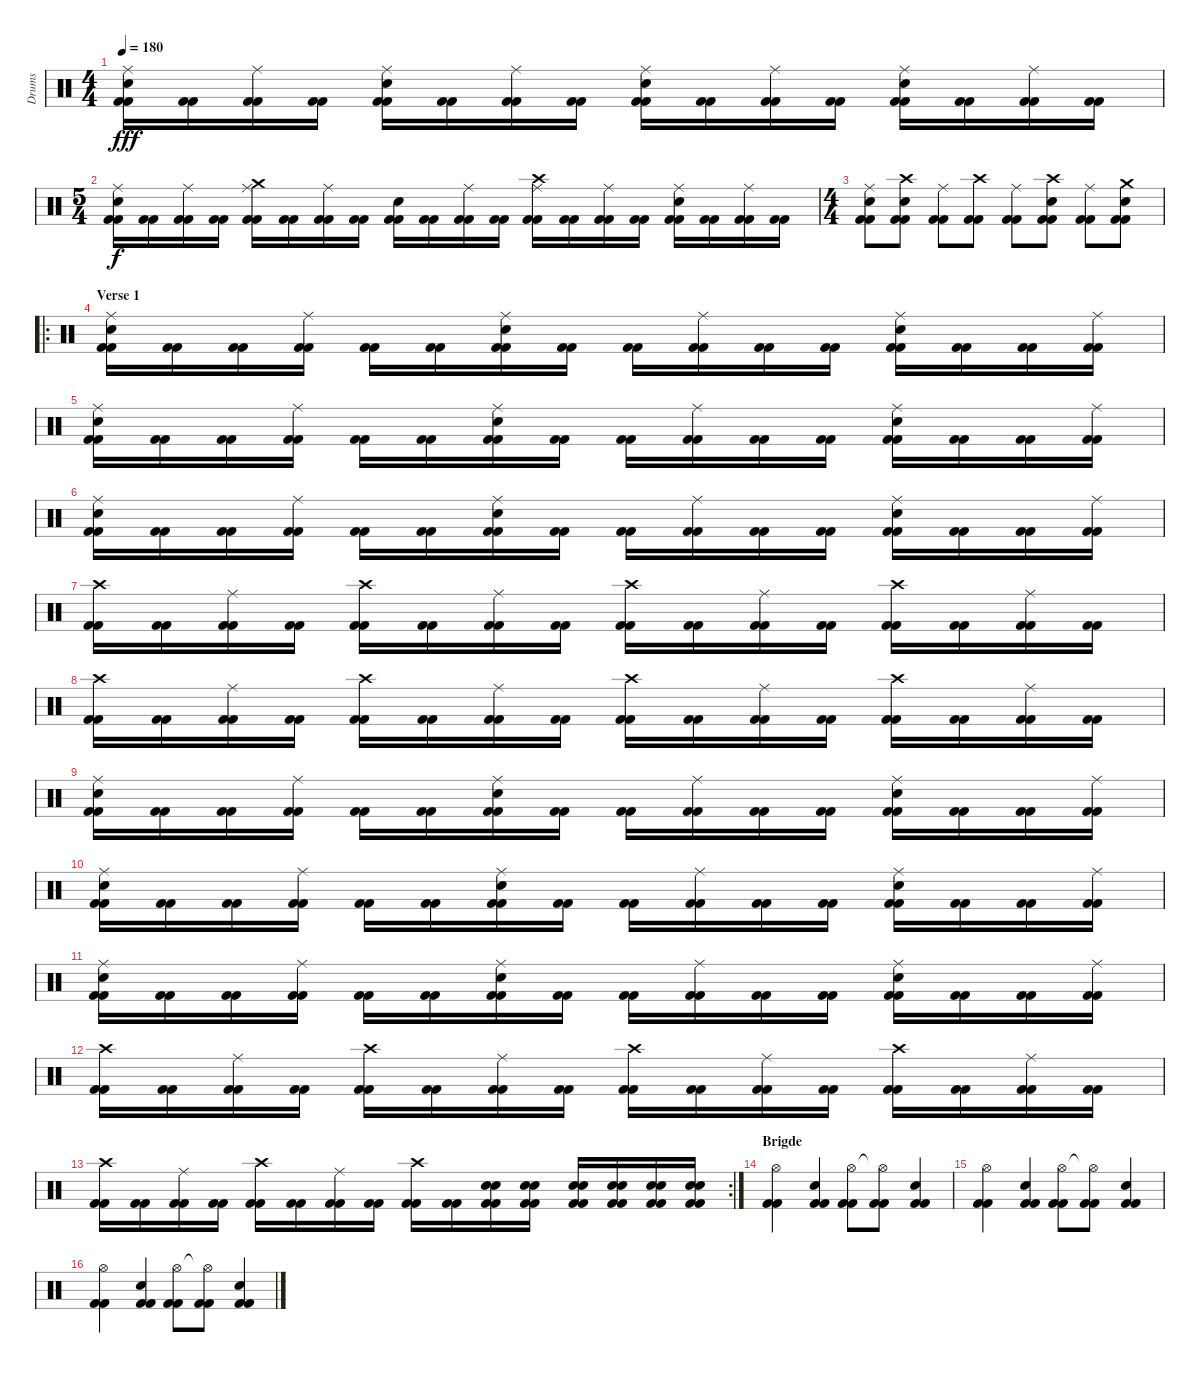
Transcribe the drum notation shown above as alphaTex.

\track ("Drums" "Drums") {instrument percussion}
\staff {score}
\articulation defaults
\ts (4 4)
\tempo 180
\clef neutral
\ks c
("Kick (hit) 2" "Kick (hit) 2" "Electric Snare (hit)" "Ride (middle)").16{dy fff} ("Kick (hit) 2" "Kick (hit) 2").16 ("Kick (hit) 2" "Kick (hit) 2" "Ride (middle)").16 ("Kick (hit) 2" "Kick (hit) 2").16 ("Kick (hit) 2" "Kick (hit) 2" "Electric Snare (hit)" "Ride (middle)").16 ("Kick (hit) 2" "Kick (hit) 2").16 ("Kick (hit) 2" "Kick (hit) 2" "Ride (middle)").16 ("Kick (hit) 2" "Kick (hit) 2").16 ("Kick (hit) 2" "Kick (hit) 2" "Electric Snare (hit)" "Ride (middle)").16 ("Kick (hit) 2" "Kick (hit) 2").16 ("Kick (hit) 2" "Kick (hit) 2" "Ride (middle)").16 ("Kick (hit) 2" "Kick (hit) 2").16 ("Kick (hit) 2" "Kick (hit) 2" "Electric Snare (hit)" "Ride (middle)").16 ("Kick (hit) 2" "Kick (hit) 2").16 ("Kick (hit) 2" "Kick (hit) 2" "Ride (middle)").16 ("Kick (hit) 2" "Kick (hit) 2").16 |
\ts (5 4)
("Kick (hit) 2" "Kick (hit) 2" "Electric Snare (hit)" "Ride (middle)").16{dy f} ("Kick (hit) 2" "Kick (hit) 2").16 ("Kick (hit) 2" "Kick (hit) 2" "Ride (middle)").16 ("Kick (hit) 2" "Kick (hit) 2").16 ("Kick (hit) 2" "Kick (hit) 2" "Crash medium (hit)" "Ride (middle)").16 ("Kick (hit) 2" "Kick (hit) 2").16 ("Kick (hit) 2" "Kick (hit) 2" "Ride (middle)").16 ("Kick (hit) 2" "Kick (hit) 2").16 ("Kick (hit) 2" "Kick (hit) 2" "Snare (hit) 2").16 ("Kick (hit) 2" "Kick (hit) 2").16 ("Kick (hit) 2" "Kick (hit) 2" "Ride (middle)").16 ("Kick (hit) 2" "Kick (hit) 2").16 ("Kick (hit) 2" "Kick (hit) 2" "Crash high (hit)" "Ride (middle)").16 ("Kick (hit) 2" "Kick (hit) 2").16 ("Kick (hit) 2" "Kick (hit) 2" "Ride (middle)").16 ("Kick (hit) 2" "Kick (hit) 2").16 ("Kick (hit) 2" "Kick (hit) 2" "Snare (hit) 2" "Ride (middle)").16 ("Kick (hit) 2" "Kick (hit) 2").16 ("Kick (hit) 2" "Kick (hit) 2" "Ride (middle)").16 ("Kick (hit) 2" "Kick (hit) 2").16 |
\ts (4 4)
("Kick (hit) 2" "Kick (hit) 2" "Electric Snare (hit)" "Ride (middle)").8 ("Kick (hit) 2" "Kick (hit) 2" "Snare (hit) 2" "Crash high (hit)").8 ("Kick (hit) 2" "Kick (hit) 2" "Ride (middle)").8 ("Kick (hit) 2" "Kick (hit) 2" "Crash high (hit)").8 ("Kick (hit) 2" "Kick (hit) 2" "Ride (middle)").8 ("Kick (hit) 2" "Kick (hit) 2" "Electric Snare (hit)" "Crash high (hit)").8 ("Kick (hit) 2" "Kick (hit) 2" "Ride (middle)").8 ("Kick (hit) 2" "Kick (hit) 2" "Electric Snare (hit)" "Crash medium (hit)").8 |
\ro
\section ("" "Verse 1")
("Kick (hit) 2" "Kick (hit) 2" "Electric Snare (hit)" "Ride (middle)").16 ("Kick (hit) 2" "Kick (hit) 2").16 ("Kick (hit) 2" "Kick (hit) 2").16 ("Kick (hit) 2" "Kick (hit) 2" "Ride (middle)").16 ("Kick (hit) 2" "Kick (hit) 2").16 ("Kick (hit) 2" "Kick (hit) 2").16 ("Kick (hit) 2" "Kick (hit) 2" "Electric Snare (hit)" "Ride (middle)").16 ("Kick (hit) 2" "Kick (hit) 2").16 ("Kick (hit) 2" "Kick (hit) 2").16 ("Kick (hit) 2" "Kick (hit) 2" "Ride (middle)").16 ("Kick (hit) 2" "Kick (hit) 2").16 ("Kick (hit) 2" "Kick (hit) 2").16 ("Kick (hit) 2" "Kick (hit) 2" "Electric Snare (hit)" "Ride (middle)").16 ("Kick (hit) 2" "Kick (hit) 2").16 ("Kick (hit) 2" "Kick (hit) 2").16 ("Kick (hit) 2" "Kick (hit) 2" "Ride (middle)").16 |
("Kick (hit) 2" "Kick (hit) 2" "Electric Snare (hit)" "Ride (middle)").16 ("Kick (hit) 2" "Kick (hit) 2").16 ("Kick (hit) 2" "Kick (hit) 2").16 ("Kick (hit) 2" "Kick (hit) 2" "Ride (middle)").16 ("Kick (hit) 2" "Kick (hit) 2").16 ("Kick (hit) 2" "Kick (hit) 2").16 ("Kick (hit) 2" "Kick (hit) 2" "Electric Snare (hit)" "Ride (middle)").16 ("Kick (hit) 2" "Kick (hit) 2").16 ("Kick (hit) 2" "Kick (hit) 2").16 ("Kick (hit) 2" "Kick (hit) 2" "Ride (middle)").16 ("Kick (hit) 2" "Kick (hit) 2").16 ("Kick (hit) 2" "Kick (hit) 2").16 ("Kick (hit) 2" "Kick (hit) 2" "Electric Snare (hit)" "Ride (middle)").16 ("Kick (hit) 2" "Kick (hit) 2").16 ("Kick (hit) 2" "Kick (hit) 2").16 ("Kick (hit) 2" "Kick (hit) 2" "Ride (middle)").16 |
("Kick (hit) 2" "Kick (hit) 2" "Electric Snare (hit)" "Ride (middle)").16 ("Kick (hit) 2" "Kick (hit) 2").16 ("Kick (hit) 2" "Kick (hit) 2").16 ("Kick (hit) 2" "Kick (hit) 2" "Ride (middle)").16 ("Kick (hit) 2" "Kick (hit) 2").16 ("Kick (hit) 2" "Kick (hit) 2").16 ("Kick (hit) 2" "Kick (hit) 2" "Electric Snare (hit)" "Ride (middle)").16 ("Kick (hit) 2" "Kick (hit) 2").16 ("Kick (hit) 2" "Kick (hit) 2").16 ("Kick (hit) 2" "Kick (hit) 2" "Ride (middle)").16 ("Kick (hit) 2" "Kick (hit) 2").16 ("Kick (hit) 2" "Kick (hit) 2").16 ("Kick (hit) 2" "Kick (hit) 2" "Electric Snare (hit)" "Ride (middle)").16 ("Kick (hit) 2" "Kick (hit) 2").16 ("Kick (hit) 2" "Kick (hit) 2").16 ("Kick (hit) 2" "Kick (hit) 2" "Ride (middle)").16 |
("Kick (hit) 2" "Kick (hit) 2" "Crash high (hit)").16 ("Kick (hit) 2" "Kick (hit) 2").16 ("Kick (hit) 2" "Kick (hit) 2" "Ride (middle)").16 ("Kick (hit) 2" "Kick (hit) 2").16 ("Kick (hit) 2" "Kick (hit) 2" "Crash high (hit)").16 ("Kick (hit) 2" "Kick (hit) 2").16 ("Kick (hit) 2" "Kick (hit) 2" "Ride (middle)").16 ("Kick (hit) 2" "Kick (hit) 2").16 ("Kick (hit) 2" "Kick (hit) 2" "Crash high (hit)").16 ("Kick (hit) 2" "Kick (hit) 2").16 ("Kick (hit) 2" "Kick (hit) 2" "Ride (middle)").16 ("Kick (hit) 2" "Kick (hit) 2").16 ("Kick (hit) 2" "Kick (hit) 2" "Crash high (hit)").16 ("Kick (hit) 2" "Kick (hit) 2").16 ("Kick (hit) 2" "Kick (hit) 2" "Ride (middle)").16 ("Kick (hit) 2" "Kick (hit) 2").16 |
("Kick (hit) 2" "Kick (hit) 2" "Crash high (hit)").16 ("Kick (hit) 2" "Kick (hit) 2").16 ("Kick (hit) 2" "Kick (hit) 2" "Ride (middle)").16 ("Kick (hit) 2" "Kick (hit) 2").16 ("Kick (hit) 2" "Kick (hit) 2" "Crash high (hit)").16 ("Kick (hit) 2" "Kick (hit) 2").16 ("Kick (hit) 2" "Kick (hit) 2" "Ride (middle)").16 ("Kick (hit) 2" "Kick (hit) 2").16 ("Kick (hit) 2" "Kick (hit) 2" "Crash high (hit)").16 ("Kick (hit) 2" "Kick (hit) 2").16 ("Kick (hit) 2" "Kick (hit) 2" "Ride (middle)").16 ("Kick (hit) 2" "Kick (hit) 2").16 ("Kick (hit) 2" "Kick (hit) 2" "Crash high (hit)").16 ("Kick (hit) 2" "Kick (hit) 2").16 ("Kick (hit) 2" "Kick (hit) 2" "Ride (middle)").16 ("Kick (hit) 2" "Kick (hit) 2").16 |
("Kick (hit) 2" "Kick (hit) 2" "Electric Snare (hit)" "Ride (middle)").16 ("Kick (hit) 2" "Kick (hit) 2").16 ("Kick (hit) 2" "Kick (hit) 2").16 ("Kick (hit) 2" "Kick (hit) 2" "Ride (middle)").16 ("Kick (hit) 2" "Kick (hit) 2").16 ("Kick (hit) 2" "Kick (hit) 2").16 ("Kick (hit) 2" "Kick (hit) 2" "Electric Snare (hit)" "Ride (middle)").16 ("Kick (hit) 2" "Kick (hit) 2").16 ("Kick (hit) 2" "Kick (hit) 2").16 ("Kick (hit) 2" "Kick (hit) 2" "Ride (middle)").16 ("Kick (hit) 2" "Kick (hit) 2").16 ("Kick (hit) 2" "Kick (hit) 2").16 ("Kick (hit) 2" "Kick (hit) 2" "Electric Snare (hit)" "Ride (middle)").16 ("Kick (hit) 2" "Kick (hit) 2").16 ("Kick (hit) 2" "Kick (hit) 2").16 ("Kick (hit) 2" "Kick (hit) 2" "Ride (middle)").16 |
("Kick (hit) 2" "Kick (hit) 2" "Electric Snare (hit)" "Ride (middle)").16 ("Kick (hit) 2" "Kick (hit) 2").16 ("Kick (hit) 2" "Kick (hit) 2").16 ("Kick (hit) 2" "Kick (hit) 2" "Ride (middle)").16 ("Kick (hit) 2" "Kick (hit) 2").16 ("Kick (hit) 2" "Kick (hit) 2").16 ("Kick (hit) 2" "Kick (hit) 2" "Electric Snare (hit)" "Ride (middle)").16 ("Kick (hit) 2" "Kick (hit) 2").16 ("Kick (hit) 2" "Kick (hit) 2").16 ("Kick (hit) 2" "Kick (hit) 2" "Ride (middle)").16 ("Kick (hit) 2" "Kick (hit) 2").16 ("Kick (hit) 2" "Kick (hit) 2").16 ("Kick (hit) 2" "Kick (hit) 2" "Electric Snare (hit)" "Ride (middle)").16 ("Kick (hit) 2" "Kick (hit) 2").16 ("Kick (hit) 2" "Kick (hit) 2").16 ("Kick (hit) 2" "Kick (hit) 2" "Ride (middle)").16 |
("Kick (hit) 2" "Kick (hit) 2" "Electric Snare (hit)" "Ride (middle)").16 ("Kick (hit) 2" "Kick (hit) 2").16 ("Kick (hit) 2" "Kick (hit) 2").16 ("Kick (hit) 2" "Kick (hit) 2" "Ride (middle)").16 ("Kick (hit) 2" "Kick (hit) 2").16 ("Kick (hit) 2" "Kick (hit) 2").16 ("Kick (hit) 2" "Kick (hit) 2" "Electric Snare (hit)" "Ride (middle)").16 ("Kick (hit) 2" "Kick (hit) 2").16 ("Kick (hit) 2" "Kick (hit) 2").16 ("Kick (hit) 2" "Kick (hit) 2" "Ride (middle)").16 ("Kick (hit) 2" "Kick (hit) 2").16 ("Kick (hit) 2" "Kick (hit) 2").16 ("Kick (hit) 2" "Kick (hit) 2" "Electric Snare (hit)" "Ride (middle)").16 ("Kick (hit) 2" "Kick (hit) 2").16 ("Kick (hit) 2" "Kick (hit) 2").16 ("Kick (hit) 2" "Kick (hit) 2" "Ride (middle)").16 |
("Kick (hit) 2" "Kick (hit) 2" "Crash high (hit)").16 ("Kick (hit) 2" "Kick (hit) 2").16 ("Kick (hit) 2" "Kick (hit) 2" "Ride (middle)").16 ("Kick (hit) 2" "Kick (hit) 2").16 ("Kick (hit) 2" "Kick (hit) 2" "Crash high (hit)").16 ("Kick (hit) 2" "Kick (hit) 2").16 ("Kick (hit) 2" "Kick (hit) 2" "Ride (middle)").16 ("Kick (hit) 2" "Kick (hit) 2").16 ("Kick (hit) 2" "Kick (hit) 2" "Crash high (hit)").16 ("Kick (hit) 2" "Kick (hit) 2").16 ("Kick (hit) 2" "Kick (hit) 2" "Ride (middle)").16 ("Kick (hit) 2" "Kick (hit) 2").16 ("Kick (hit) 2" "Kick (hit) 2" "Crash high (hit)").16 ("Kick (hit) 2" "Kick (hit) 2").16 ("Kick (hit) 2" "Kick (hit) 2" "Ride (middle)").16 ("Kick (hit) 2" "Kick (hit) 2").16 |
\rc 2
("Kick (hit) 2" "Kick (hit) 2" "Crash high (hit)").16 ("Kick (hit) 2" "Kick (hit) 2").16 ("Kick (hit) 2" "Kick (hit) 2" "Ride (middle)").16 ("Kick (hit) 2" "Kick (hit) 2").16 ("Kick (hit) 2" "Kick (hit) 2" "Crash high (hit)").16 ("Kick (hit) 2" "Kick (hit) 2").16 ("Kick (hit) 2" "Kick (hit) 2" "Ride (middle)").16 ("Kick (hit) 2" "Kick (hit) 2").16 ("Kick (hit) 2" "Kick (hit) 2" "Crash high (hit)").16 ("Kick (hit) 2" "Kick (hit) 2").16 ("Kick (hit) 2" "Kick (hit) 2" "Snare (hit) 2" "Snare (hit) 2").16 ("Kick (hit) 2" "Kick (hit) 2" "Snare (hit) 2" "Snare (hit) 2").16 ("Kick (hit) 2" "Kick (hit) 2" "Snare (hit) 2" "Snare (hit) 2").16 ("Kick (hit) 2" "Kick (hit) 2" "Snare (hit) 2" "Snare (hit) 2").16 ("Kick (hit) 2" "Kick (hit) 2" "Snare (hit) 2" "Snare (hit) 2").16 ("Kick (hit) 2" "Kick (hit) 2" "Snare (hit) 2" "Snare (hit) 2").16 |
\section ("" "Brigde")
("Hi-Hat (open)" "Kick (hit) 2" "Kick (hit) 2").4 ("Snare (hit) 2" "Kick (hit) 2" "Kick (hit) 2").4 ("Hi-Hat (open)" "Kick (hit) 2" "Kick (hit) 2").8 ("Hi-Hat (open)"{t} "Kick (hit) 2" "Kick (hit) 2").8 ("Snare (hit) 2" "Kick (hit) 2" "Kick (hit) 2").4 |
("Hi-Hat (open)" "Kick (hit) 2" "Kick (hit) 2").4 ("Snare (hit) 2" "Kick (hit) 2" "Kick (hit) 2").4 ("Hi-Hat (open)" "Kick (hit) 2" "Kick (hit) 2").8 ("Hi-Hat (open)"{t} "Kick (hit) 2" "Kick (hit) 2").8 ("Snare (hit) 2" "Kick (hit) 2" "Kick (hit) 2").4 |
("Hi-Hat (open)" "Kick (hit) 2" "Kick (hit) 2").4 ("Snare (hit) 2" "Kick (hit) 2" "Kick (hit) 2").4 ("Hi-Hat (open)" "Kick (hit) 2" "Kick (hit) 2").8 ("Hi-Hat (open)"{t} "Kick (hit) 2" "Kick (hit) 2").8 ("Snare (hit) 2" "Kick (hit) 2" "Kick (hit) 2").4
